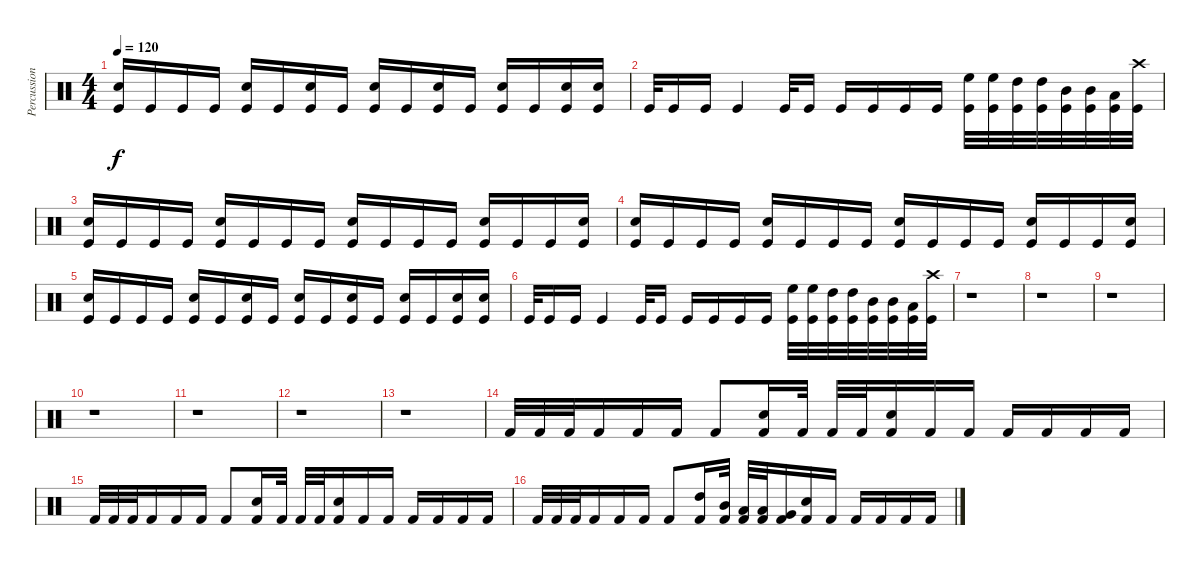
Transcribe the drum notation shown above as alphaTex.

\track ("Percussion" "Percussion") {instrument percussion}
\staff {score}
\articulation defaults
\ts (4 4)
\tempo 120
\clef neutral
\ks c
("Kick (hit)" "Snare (hit) 2").16{dy f} "Kick (hit)".16 "Kick (hit)".16 "Kick (hit)".16 ("Kick (hit)" "Snare (hit) 2").16 "Kick (hit)".16 ("Kick (hit)" "Snare (hit) 2").16 "Kick (hit)".16 ("Kick (hit)" "Snare (hit) 2").16 "Kick (hit)".16 ("Kick (hit)" "Snare (hit) 2").16 "Kick (hit)".16 ("Kick (hit)" "Snare (hit) 2").16 "Kick (hit)".16 ("Kick (hit)" "Snare (hit) 2").16 ("Kick (hit)" "Snare (hit) 2").16 |
"Kick (hit)".32 "Kick (hit)".16 "Kick (hit)".16 "Kick (hit)".4 "Kick (hit)".32 "Kick (hit)".16 "Kick (hit)".16 "Kick (hit)".16 "Kick (hit)".16 "Kick (hit)".16 ("Kick (hit)" "High Floor Tom (hit)").32 ("Kick (hit)" "High Floor Tom (hit)").32 ("Kick (hit)" "High Tom (hit)").32 ("Kick (hit)" "High Tom (hit)").32 ("Kick (hit)" "Mid Tom (hit)").32 ("Kick (hit)" "Mid Tom (hit)").32 ("Kick (hit)" "Low Tom (hit)").32 ("Kick (hit)" "Crash high (hit)").32 |
("Kick (hit)" "Snare (hit) 2").16 "Kick (hit)".16 "Kick (hit)".16 "Kick (hit)".16 ("Kick (hit)" "Snare (hit) 2").16 "Kick (hit)".16 "Kick (hit)".16 "Kick (hit)".16 ("Kick (hit)" "Snare (hit) 2").16 "Kick (hit)".16 "Kick (hit)".16 "Kick (hit)".16 ("Kick (hit)" "Snare (hit) 2").16 "Kick (hit)".16 "Kick (hit)".16 ("Kick (hit)" "Snare (hit) 2").16 |
("Kick (hit)" "Snare (hit) 2").16 "Kick (hit)".16 "Kick (hit)".16 "Kick (hit)".16 ("Kick (hit)" "Snare (hit) 2").16 "Kick (hit)".16 "Kick (hit)".16 "Kick (hit)".16 ("Kick (hit)" "Snare (hit) 2").16 "Kick (hit)".16 "Kick (hit)".16 "Kick (hit)".16 ("Kick (hit)" "Snare (hit) 2").16 "Kick (hit)".16 "Kick (hit)".16 ("Kick (hit)" "Snare (hit) 2").16 |
("Kick (hit)" "Snare (hit) 2").16 "Kick (hit)".16 "Kick (hit)".16 "Kick (hit)".16 ("Kick (hit)" "Snare (hit) 2").16 "Kick (hit)".16 ("Kick (hit)" "Snare (hit) 2").16 "Kick (hit)".16 ("Kick (hit)" "Snare (hit) 2").16 "Kick (hit)".16 ("Kick (hit)" "Snare (hit) 2").16 "Kick (hit)".16 ("Kick (hit)" "Snare (hit) 2").16 "Kick (hit)".16 ("Kick (hit)" "Snare (hit) 2").16 ("Kick (hit)" "Snare (hit) 2").16 |
"Kick (hit)".32 "Kick (hit)".16 "Kick (hit)".16 "Kick (hit)".4 "Kick (hit)".32 "Kick (hit)".16 "Kick (hit)".16 "Kick (hit)".16 "Kick (hit)".16 "Kick (hit)".16 ("Kick (hit)" "High Floor Tom (hit)").32 ("Kick (hit)" "High Floor Tom (hit)").32 ("Kick (hit)" "High Tom (hit)").32 ("Kick (hit)" "High Tom (hit)").32 ("Kick (hit)" "Mid Tom (hit)").32 ("Kick (hit)" "Mid Tom (hit)").32 ("Kick (hit)" "Low Tom (hit)").32 ("Kick (hit)" "Crash high (hit)").32 |
r.1 |
r.1 |
r.1 |
r.1 |
r.1 |
r.1 |
r.1 |
"Kick (hit) 2".32 "Kick (hit) 2".32 "Kick (hit) 2".32 "Kick (hit) 2".16 "Kick (hit) 2".16 "Kick (hit) 2".16 "Kick (hit) 2".8 ("Kick (hit) 2" "Snare (hit) 2").16 "Kick (hit) 2".32 "Kick (hit) 2".32 "Kick (hit) 2".32 ("Kick (hit) 2" "Snare (hit) 2").16 "Kick (hit) 2".16 "Kick (hit) 2".16 "Kick (hit) 2".16 "Kick (hit) 2".16 "Kick (hit) 2".16 "Kick (hit) 2".16 |
"Kick (hit) 2".32 "Kick (hit) 2".32 "Kick (hit) 2".32 "Kick (hit) 2".16 "Kick (hit) 2".16 "Kick (hit) 2".16 "Kick (hit) 2".8 ("Kick (hit) 2" "Snare (hit) 2").16 "Kick (hit) 2".32 "Kick (hit) 2".32 "Kick (hit) 2".32 ("Kick (hit) 2" "Snare (hit) 2").16 "Kick (hit) 2".16 "Kick (hit) 2".16 "Kick (hit) 2".16 "Kick (hit) 2".16 "Kick (hit) 2".16 "Kick (hit) 2".16 |
"Kick (hit) 2".32 "Kick (hit) 2".32 "Kick (hit) 2".32 "Kick (hit) 2".16 "Kick (hit) 2".16 "Kick (hit) 2".16 "Kick (hit) 2".8 ("Kick (hit) 2" "High Tom (hit)").16 ("Kick (hit) 2" "Mid Tom (hit)").32 ("Kick (hit) 2" "Low Tom (hit)").32 ("Kick (hit) 2" "Low Tom (hit)").32 ("Kick (hit) 2" "Very Low Tom (hit)").16 ("Kick (hit) 2" "Snare (hit) 2").16 "Kick (hit) 2".16 "Kick (hit) 2".16 "Kick (hit) 2".16 "Kick (hit) 2".16 "Kick (hit) 2".16
